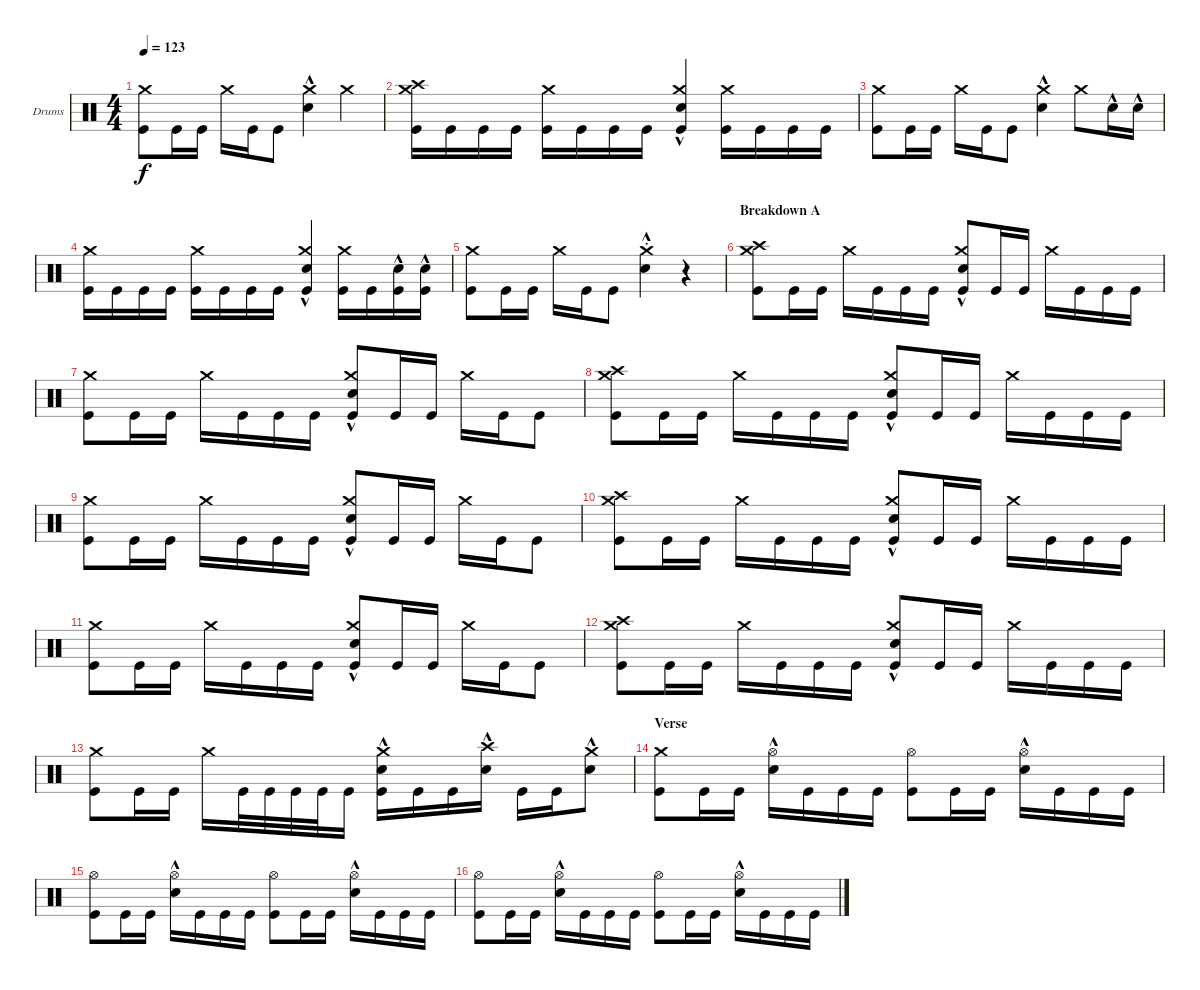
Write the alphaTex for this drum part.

\bracketExtendMode groupsimilarinstruments
\firstSystemTrackNameOrientation horizontal
\otherSystemsTrackNameOrientation horizontal
\track ("Drumkit" "Drums") {instrument percussion}
\staff {score}
\articulation defaults
\ts (4 4)
\tempo 123
\clef neutral
\ks aminor
("Kick (hit)" "Crash medium (hit)").8{dy f} "Kick (hit)".16 "Kick (hit)".16 "Crash medium (hit)".16 "Kick (hit)".16 "Kick (hit)".8 ("Crash medium (hit)" "Snare (hit) 2"{hac}).4 "Crash medium (hit)".4 |
("Kick (hit)" "Crash medium (hit)" "Crash high (hit)").16 "Kick (hit)".16 "Kick (hit)".16 "Kick (hit)".16 ("Kick (hit)" "Crash medium (hit)").16 "Kick (hit)".16 "Kick (hit)".16 "Kick (hit)".16 ("Kick (hit)" "Crash medium (hit)" "Snare (hit) 2"{hac}).4 ("Kick (hit)" "Crash medium (hit)").16 "Kick (hit)".16 "Kick (hit)".16 "Kick (hit)".16 |
("Kick (hit)" "Crash medium (hit)").8 "Kick (hit)".16 "Kick (hit)".16 "Crash medium (hit)".16 "Kick (hit)".16 "Kick (hit)".8 ("Crash medium (hit)" "Snare (hit) 2"{hac}).4 "Crash medium (hit)".8 "Snare (hit) 2"{hac}.16 "Snare (hit) 2"{hac}.16 |
("Kick (hit)" "Crash medium (hit)").16 "Kick (hit)".16 "Kick (hit)".16 "Kick (hit)".16 ("Kick (hit)" "Crash medium (hit)").16 "Kick (hit)".16 "Kick (hit)".16 "Kick (hit)".16 ("Kick (hit)" "Crash medium (hit)" "Snare (hit) 2"{hac}).4 ("Kick (hit)" "Crash medium (hit)").16 "Kick (hit)".16 ("Kick (hit)" "Snare (hit) 2"{hac}).16 ("Kick (hit)" "Snare (hit) 2"{hac}).16 |
("Kick (hit)" "Crash medium (hit)").8 "Kick (hit)".16 "Kick (hit)".16 "Crash medium (hit)".16 "Kick (hit)".16 "Kick (hit)".8 ("Crash medium (hit)"{st} "Snare (hit) 2"{hac}).4 r.4 |
\section ("" "Breakdown A")
("Kick (hit)" "Crash medium (hit)" "Crash high (hit)").8 "Kick (hit)".16 "Kick (hit)".16 "Crash medium (hit)".16 "Kick (hit)".16 "Kick (hit)".16 "Kick (hit)".16 ("Kick (hit)" "Crash medium (hit)" "Snare (hit) 2"{hac}).8 "Kick (hit)".16 "Kick (hit)".16 "Crash medium (hit)".16 "Kick (hit)".16 "Kick (hit)".16 "Kick (hit)".16 |
("Kick (hit)" "Crash medium (hit)").8 "Kick (hit)".16 "Kick (hit)".16 "Crash medium (hit)".16 "Kick (hit)".16 "Kick (hit)".16 "Kick (hit)".16 ("Kick (hit)" "Crash medium (hit)" "Snare (hit) 2"{hac}).8 "Kick (hit)".16 "Kick (hit)".16 "Crash medium (hit)".16 "Kick (hit)".16 "Kick (hit)".8 |
("Kick (hit)" "Crash medium (hit)" "Crash high (hit)").8 "Kick (hit)".16 "Kick (hit)".16 "Crash medium (hit)".16 "Kick (hit)".16 "Kick (hit)".16 "Kick (hit)".16 ("Kick (hit)" "Crash medium (hit)" "Snare (hit) 2"{hac}).8 "Kick (hit)".16 "Kick (hit)".16 "Crash medium (hit)".16 "Kick (hit)".16 "Kick (hit)".16 "Kick (hit)".16 |
("Kick (hit)" "Crash medium (hit)").8 "Kick (hit)".16 "Kick (hit)".16 "Crash medium (hit)".16 "Kick (hit)".16 "Kick (hit)".16 "Kick (hit)".16 ("Kick (hit)" "Crash medium (hit)" "Snare (hit) 2"{hac}).8 "Kick (hit)".16 "Kick (hit)".16 "Crash medium (hit)".16 "Kick (hit)".16 "Kick (hit)".8 |
("Kick (hit)" "Crash medium (hit)" "Crash high (hit)").8 "Kick (hit)".16 "Kick (hit)".16 "Crash medium (hit)".16 "Kick (hit)".16 "Kick (hit)".16 "Kick (hit)".16 ("Kick (hit)" "Crash medium (hit)" "Snare (hit) 2"{hac}).8 "Kick (hit)".16 "Kick (hit)".16 "Crash medium (hit)".16 "Kick (hit)".16 "Kick (hit)".16 "Kick (hit)".16 |
("Kick (hit)" "Crash medium (hit)").8 "Kick (hit)".16 "Kick (hit)".16 "Crash medium (hit)".16 "Kick (hit)".16 "Kick (hit)".16 "Kick (hit)".16 ("Kick (hit)" "Crash medium (hit)" "Snare (hit) 2"{hac}).8 "Kick (hit)".16 "Kick (hit)".16 "Crash medium (hit)".16 "Kick (hit)".16 "Kick (hit)".8 |
("Kick (hit)" "Crash medium (hit)" "Crash high (hit)").8 "Kick (hit)".16 "Kick (hit)".16 "Crash medium (hit)".16 "Kick (hit)".16 "Kick (hit)".16 "Kick (hit)".16 ("Kick (hit)" "Crash medium (hit)" "Snare (hit) 2"{hac}).8 "Kick (hit)".16 "Kick (hit)".16 "Crash medium (hit)".16 "Kick (hit)".16 "Kick (hit)".16 "Kick (hit)".16 |
("Kick (hit)" "Crash medium (hit)").8 "Kick (hit)".16 "Kick (hit)".16 "Crash medium (hit)".16 "Kick (hit)".32 "Kick (hit)".32 "Kick (hit)".32 "Kick (hit)".32 "Kick (hit)".16 ("Kick (hit)" "Crash medium (hit)" "Snare (hit) 2"{hac}).16 "Kick (hit)".16 "Kick (hit)".16 ("Snare (hit) 2"{hac} "Crash high (hit)").16 "Kick (hit)".16 "Kick (hit)".16 ("Snare (hit) 2"{hac} "Crash medium (hit)").8 |
\section ("" "Verse")
("Kick (hit)" "Crash medium (hit)").8 "Kick (hit)".16 "Kick (hit)".16 ("Hi-Hat (open)" "Snare (hit) 2"{hac}).16 "Kick (hit)".16 "Kick (hit)".16 "Kick (hit)".16 ("Kick (hit)" "Hi-Hat (open)").8 "Kick (hit)".16 "Kick (hit)".16 ("Hi-Hat (open)" "Snare (hit) 2"{hac}).16 "Kick (hit)".16 "Kick (hit)".16 "Kick (hit)".16 |
("Kick (hit)" "Hi-Hat (open)").8 "Kick (hit)".16 "Kick (hit)".16 ("Hi-Hat (open)" "Snare (hit) 2"{hac}).16 "Kick (hit)".16 "Kick (hit)".16 "Kick (hit)".16 ("Kick (hit)" "Hi-Hat (open)").8 "Kick (hit)".16 "Kick (hit)".16 ("Hi-Hat (open)" "Snare (hit) 2"{hac}).16 "Kick (hit)".16 "Kick (hit)".16 "Kick (hit)".16 |
("Kick (hit)" "Hi-Hat (open)").8 "Kick (hit)".16 "Kick (hit)".16 ("Hi-Hat (open)" "Snare (hit) 2"{hac}).16 "Kick (hit)".16 "Kick (hit)".16 "Kick (hit)".16 ("Kick (hit)" "Hi-Hat (open)").8 "Kick (hit)".16 "Kick (hit)".16 ("Hi-Hat (open)" "Snare (hit) 2"{hac}).16 "Kick (hit)".16 "Kick (hit)".16 "Kick (hit)".16
